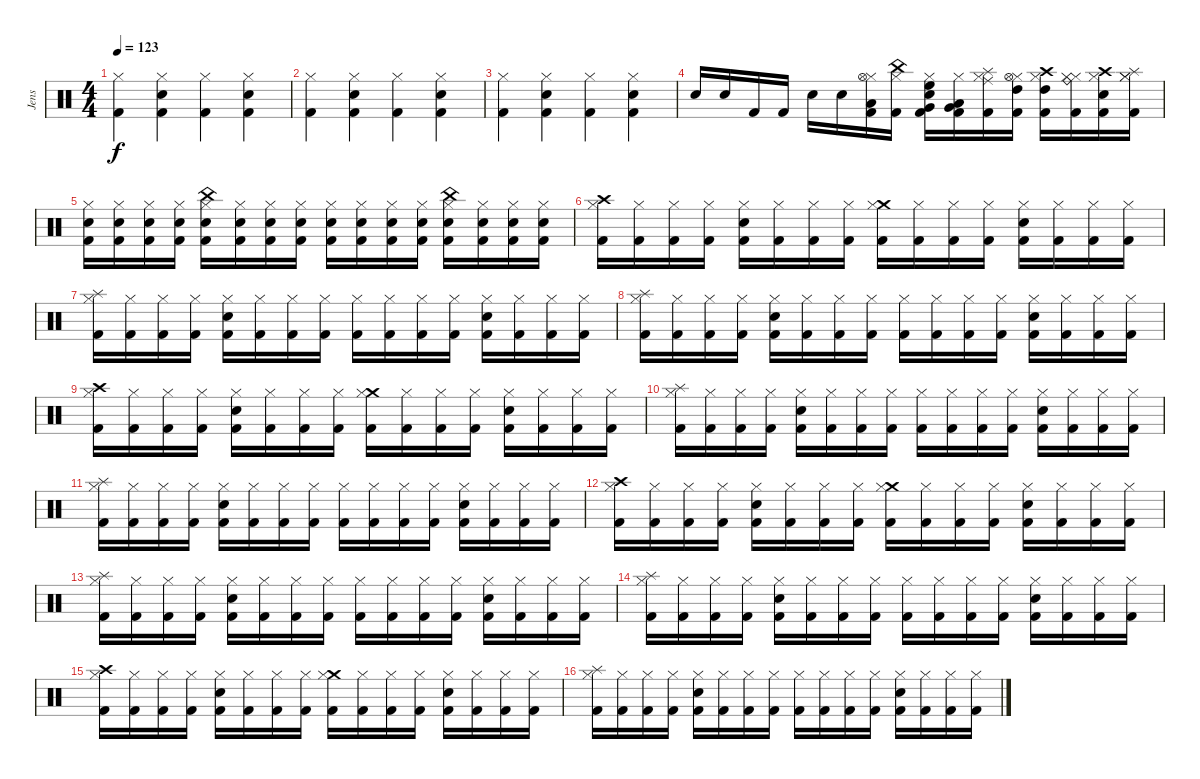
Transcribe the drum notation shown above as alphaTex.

\track ("Jens" "Jens") {instrument percussion}
\staff {score}
\articulation defaults
\ts (4 4)
\tempo 123
\clef neutral
\ks c
("Hi-Hat (closed)" "Kick (hit) 2").4{dy f} ("Hi-Hat (closed)" "Electric Snare (hit)" "Kick (hit) 2").4 ("Hi-Hat (closed)" "Kick (hit) 2").4 ("Hi-Hat (closed)" "Electric Snare (hit)" "Kick (hit) 2").4 |
("Hi-Hat (closed)" "Kick (hit) 2").4 ("Hi-Hat (closed)" "Electric Snare (hit)" "Kick (hit) 2").4 ("Hi-Hat (closed)" "Kick (hit) 2").4 ("Hi-Hat (closed)" "Electric Snare (hit)" "Kick (hit) 2").4 |
("Hi-Hat (closed)" "Kick (hit) 2").4 ("Hi-Hat (closed)" "Electric Snare (hit)" "Kick (hit) 2").4 ("Hi-Hat (closed)" "Kick (hit) 2").4 ("Hi-Hat (closed)" "Electric Snare (hit)" "Kick (hit) 2").4 |
"Snare (hit) 2".16 "Snare (hit) 2".16 "Kick (hit) 2".16 "Kick (hit) 2".16 "Snare (hit) 2".16 "Snare (hit) 2".16 ("Hi-Hat (closed)" "Low Tom (hit)" "Hi-Hat (open)" "Kick (hit) 2").16 ("Hi-Hat (closed)" "China (hit)" "Kick (hit) 2").16 ("Hi-Hat (closed)" "High Floor Tom (hit)" "Very Low Tom (hit)" "Snare (hit) 2" "Kick (hit) 2").16 ("Hi-Hat (closed)" "Low Floor Tom (hit)" "Very Low Tom (hit)" "Kick (hit) 2").16 ("Hi-Hat (closed)" "Splash (hit)" "Ride (middle)" "Kick (hit) 2").16 ("Hi-Hat (closed)" "Hi-Hat (open)" "High Tom (hit)" "Kick (hit) 2").16 ("Hi-Hat (closed)" "High Tom (hit)" "Crash high (hit)" "Kick (hit) 2").16 ("Hi-Hat (closed)" "Hi-Hat (closed)" "Ride (bell)" "Kick (hit) 2").16 ("Hi-Hat (closed)" "Snare (hit) 2" "Crash high (hit)" "Kick (hit) 2").16 ("Hi-Hat (closed)" "Splash (hit)" "Hi-Hat (closed)" "Kick (hit) 2").16 |
("Hi-Hat (closed)" "Snare (hit) 2" "Kick (hit) 2").16 ("Hi-Hat (closed)" "Snare (hit) 2" "Kick (hit) 2").16 ("Hi-Hat (closed)" "Snare (hit) 2" "Kick (hit) 2").16 ("Hi-Hat (closed)" "Snare (hit) 2" "Kick (hit) 2").16 ("Hi-Hat (closed)" "China (hit)" "Snare (hit) 2" "Kick (hit) 2").16 ("Hi-Hat (closed)" "Snare (hit) 2" "Kick (hit) 2").16 ("Hi-Hat (closed)" "Snare (hit) 2" "Kick (hit) 2").16 ("Hi-Hat (closed)" "Snare (hit) 2" "Kick (hit) 2").16 ("Hi-Hat (closed)" "Snare (hit) 2" "Kick (hit) 2").16 ("Hi-Hat (closed)" "Snare (hit) 2" "Kick (hit) 2").16 ("Hi-Hat (closed)" "Snare (hit) 2" "Kick (hit) 2").16 ("Hi-Hat (closed)" "Snare (hit) 2" "Kick (hit) 2").16 ("Hi-Hat (closed)" "China (hit)" "Snare (hit) 2" "Kick (hit) 2").16 ("Hi-Hat (closed)" "Snare (hit) 2" "Kick (hit) 2").16 ("Hi-Hat (closed)" "Snare (hit) 2" "Kick (hit) 2").16 ("Hi-Hat (closed)" "Snare (hit) 2" "Kick (hit) 2").16 |
("Crash high (hit)" "Hi-Hat (closed)" "Kick (hit) 2").16 ("Hi-Hat (closed)" "Kick (hit) 2").16 ("Hi-Hat (closed)" "Kick (hit) 2").16 ("Hi-Hat (closed)" "Kick (hit) 2").16 ("Hi-Hat (closed)" "Snare (hit) 2" "Kick (hit) 2").16 ("Hi-Hat (closed)" "Kick (hit) 2").16 ("Hi-Hat (closed)" "Kick (hit) 2").16 ("Hi-Hat (closed)" "Kick (hit) 2").16 ("Crash medium (hit)" "Hi-Hat (closed)" "Kick (hit) 2").16 ("Hi-Hat (closed)" "Kick (hit) 2").16 ("Hi-Hat (closed)" "Kick (hit) 2").16 ("Hi-Hat (closed)" "Kick (hit) 2").16 ("Hi-Hat (closed)" "Snare (hit) 2" "Kick (hit) 2").16 ("Hi-Hat (closed)" "Kick (hit) 2").16 ("Hi-Hat (closed)" "Kick (hit) 2").16 ("Hi-Hat (closed)" "Kick (hit) 2").16 |
("Splash (hit)" "Hi-Hat (closed)" "Kick (hit) 2").16 ("Hi-Hat (closed)" "Kick (hit) 2").16 ("Hi-Hat (closed)" "Kick (hit) 2").16 ("Hi-Hat (closed)" "Kick (hit) 2").16 ("Hi-Hat (closed)" "Snare (hit) 2" "Kick (hit) 2").16 ("Hi-Hat (closed)" "Kick (hit) 2").16 ("Hi-Hat (closed)" "Kick (hit) 2").16 ("Hi-Hat (closed)" "Kick (hit) 2").16 ("Hi-Hat (closed)" "Kick (hit) 2").16 ("Hi-Hat (closed)" "Kick (hit) 2").16 ("Hi-Hat (closed)" "Kick (hit) 2").16 ("Hi-Hat (closed)" "Kick (hit) 2").16 ("Hi-Hat (closed)" "Snare (hit) 2" "Kick (hit) 2").16 ("Hi-Hat (closed)" "Kick (hit) 2").16 ("Hi-Hat (closed)" "Kick (hit) 2").16 ("Hi-Hat (closed)" "Kick (hit) 2").16 |
("Splash (hit)" "Hi-Hat (closed)" "Kick (hit) 2").16 ("Hi-Hat (closed)" "Kick (hit) 2").16 ("Hi-Hat (closed)" "Kick (hit) 2").16 ("Hi-Hat (closed)" "Kick (hit) 2").16 ("Hi-Hat (closed)" "Snare (hit) 2" "Kick (hit) 2").16 ("Hi-Hat (closed)" "Kick (hit) 2").16 ("Hi-Hat (closed)" "Kick (hit) 2").16 ("Hi-Hat (closed)" "Kick (hit) 2").16 ("Hi-Hat (closed)" "Kick (hit) 2").16 ("Hi-Hat (closed)" "Kick (hit) 2").16 ("Hi-Hat (closed)" "Kick (hit) 2").16 ("Hi-Hat (closed)" "Kick (hit) 2").16 ("Hi-Hat (closed)" "Snare (hit) 2" "Kick (hit) 2").16 ("Hi-Hat (closed)" "Kick (hit) 2").16 ("Hi-Hat (closed)" "Kick (hit) 2").16 ("Hi-Hat (closed)" "Kick (hit) 2").16 |
("Crash high (hit)" "Hi-Hat (closed)" "Kick (hit) 2").16 ("Hi-Hat (closed)" "Kick (hit) 2").16 ("Hi-Hat (closed)" "Kick (hit) 2").16 ("Hi-Hat (closed)" "Kick (hit) 2").16 ("Hi-Hat (closed)" "Snare (hit) 2" "Kick (hit) 2").16 ("Hi-Hat (closed)" "Kick (hit) 2").16 ("Hi-Hat (closed)" "Kick (hit) 2").16 ("Hi-Hat (closed)" "Kick (hit) 2").16 ("Crash medium (hit)" "Hi-Hat (closed)" "Kick (hit) 2").16 ("Hi-Hat (closed)" "Kick (hit) 2").16 ("Hi-Hat (closed)" "Kick (hit) 2").16 ("Hi-Hat (closed)" "Kick (hit) 2").16 ("Hi-Hat (closed)" "Snare (hit) 2" "Kick (hit) 2").16 ("Hi-Hat (closed)" "Kick (hit) 2").16 ("Hi-Hat (closed)" "Kick (hit) 2").16 ("Hi-Hat (closed)" "Kick (hit) 2").16 |
("Splash (hit)" "Hi-Hat (closed)" "Kick (hit) 2").16 ("Hi-Hat (closed)" "Kick (hit) 2").16 ("Hi-Hat (closed)" "Kick (hit) 2").16 ("Hi-Hat (closed)" "Kick (hit) 2").16 ("Hi-Hat (closed)" "Snare (hit) 2" "Kick (hit) 2").16 ("Hi-Hat (closed)" "Kick (hit) 2").16 ("Hi-Hat (closed)" "Kick (hit) 2").16 ("Hi-Hat (closed)" "Kick (hit) 2").16 ("Hi-Hat (closed)" "Kick (hit) 2").16 ("Hi-Hat (closed)" "Kick (hit) 2").16 ("Hi-Hat (closed)" "Kick (hit) 2").16 ("Hi-Hat (closed)" "Kick (hit) 2").16 ("Hi-Hat (closed)" "Snare (hit) 2" "Kick (hit) 2").16 ("Hi-Hat (closed)" "Kick (hit) 2").16 ("Hi-Hat (closed)" "Kick (hit) 2").16 ("Hi-Hat (closed)" "Kick (hit) 2").16 |
("Splash (hit)" "Hi-Hat (closed)" "Kick (hit) 2").16 ("Hi-Hat (closed)" "Kick (hit) 2").16 ("Hi-Hat (closed)" "Kick (hit) 2").16 ("Hi-Hat (closed)" "Kick (hit) 2").16 ("Hi-Hat (closed)" "Snare (hit) 2" "Kick (hit) 2").16 ("Hi-Hat (closed)" "Kick (hit) 2").16 ("Hi-Hat (closed)" "Kick (hit) 2").16 ("Hi-Hat (closed)" "Kick (hit) 2").16 ("Hi-Hat (closed)" "Kick (hit) 2").16 ("Hi-Hat (closed)" "Kick (hit) 2").16 ("Hi-Hat (closed)" "Kick (hit) 2").16 ("Hi-Hat (closed)" "Kick (hit) 2").16 ("Hi-Hat (closed)" "Snare (hit) 2" "Kick (hit) 2").16 ("Hi-Hat (closed)" "Kick (hit) 2").16 ("Hi-Hat (closed)" "Kick (hit) 2").16 ("Hi-Hat (closed)" "Kick (hit) 2").16 |
("Crash high (hit)" "Hi-Hat (closed)" "Kick (hit) 2").16 ("Hi-Hat (closed)" "Kick (hit) 2").16 ("Hi-Hat (closed)" "Kick (hit) 2").16 ("Hi-Hat (closed)" "Kick (hit) 2").16 ("Hi-Hat (closed)" "Snare (hit) 2" "Kick (hit) 2").16 ("Hi-Hat (closed)" "Kick (hit) 2").16 ("Hi-Hat (closed)" "Kick (hit) 2").16 ("Hi-Hat (closed)" "Kick (hit) 2").16 ("Crash medium (hit)" "Hi-Hat (closed)" "Kick (hit) 2").16 ("Hi-Hat (closed)" "Kick (hit) 2").16 ("Hi-Hat (closed)" "Kick (hit) 2").16 ("Hi-Hat (closed)" "Kick (hit) 2").16 ("Hi-Hat (closed)" "Snare (hit) 2" "Kick (hit) 2").16 ("Hi-Hat (closed)" "Kick (hit) 2").16 ("Hi-Hat (closed)" "Kick (hit) 2").16 ("Hi-Hat (closed)" "Kick (hit) 2").16 |
("Splash (hit)" "Hi-Hat (closed)" "Kick (hit) 2").16 ("Hi-Hat (closed)" "Kick (hit) 2").16 ("Hi-Hat (closed)" "Kick (hit) 2").16 ("Hi-Hat (closed)" "Kick (hit) 2").16 ("Hi-Hat (closed)" "Snare (hit) 2" "Kick (hit) 2").16 ("Hi-Hat (closed)" "Kick (hit) 2").16 ("Hi-Hat (closed)" "Kick (hit) 2").16 ("Hi-Hat (closed)" "Kick (hit) 2").16 ("Hi-Hat (closed)" "Kick (hit) 2").16 ("Hi-Hat (closed)" "Kick (hit) 2").16 ("Hi-Hat (closed)" "Kick (hit) 2").16 ("Hi-Hat (closed)" "Kick (hit) 2").16 ("Hi-Hat (closed)" "Snare (hit) 2" "Kick (hit) 2").16 ("Hi-Hat (closed)" "Kick (hit) 2").16 ("Hi-Hat (closed)" "Kick (hit) 2").16 ("Hi-Hat (closed)" "Kick (hit) 2").16 |
("Splash (hit)" "Hi-Hat (closed)" "Kick (hit) 2").16 ("Hi-Hat (closed)" "Kick (hit) 2").16 ("Hi-Hat (closed)" "Kick (hit) 2").16 ("Hi-Hat (closed)" "Kick (hit) 2").16 ("Hi-Hat (closed)" "Snare (hit) 2" "Kick (hit) 2").16 ("Hi-Hat (closed)" "Kick (hit) 2").16 ("Hi-Hat (closed)" "Kick (hit) 2").16 ("Hi-Hat (closed)" "Kick (hit) 2").16 ("Hi-Hat (closed)" "Kick (hit) 2").16 ("Hi-Hat (closed)" "Kick (hit) 2").16 ("Hi-Hat (closed)" "Kick (hit) 2").16 ("Hi-Hat (closed)" "Kick (hit) 2").16 ("Hi-Hat (closed)" "Snare (hit) 2" "Kick (hit) 2").16 ("Hi-Hat (closed)" "Kick (hit) 2").16 ("Hi-Hat (closed)" "Kick (hit) 2").16 ("Hi-Hat (closed)" "Kick (hit) 2").16 |
("Crash high (hit)" "Hi-Hat (closed)" "Kick (hit) 2").16 ("Hi-Hat (closed)" "Kick (hit) 2").16 ("Hi-Hat (closed)" "Kick (hit) 2").16 ("Hi-Hat (closed)" "Kick (hit) 2").16 ("Hi-Hat (closed)" "Snare (hit) 2" "Kick (hit) 2").16 ("Hi-Hat (closed)" "Kick (hit) 2").16 ("Hi-Hat (closed)" "Kick (hit) 2").16 ("Hi-Hat (closed)" "Kick (hit) 2").16 ("Crash medium (hit)" "Hi-Hat (closed)" "Kick (hit) 2").16 ("Hi-Hat (closed)" "Kick (hit) 2").16 ("Hi-Hat (closed)" "Kick (hit) 2").16 ("Hi-Hat (closed)" "Kick (hit) 2").16 ("Hi-Hat (closed)" "Snare (hit) 2" "Kick (hit) 2").16 ("Hi-Hat (closed)" "Kick (hit) 2").16 ("Hi-Hat (closed)" "Kick (hit) 2").16 ("Hi-Hat (closed)" "Kick (hit) 2").16 |
("Splash (hit)" "Hi-Hat (closed)" "Kick (hit) 2").16 ("Hi-Hat (closed)" "Kick (hit) 2").16 ("Hi-Hat (closed)" "Kick (hit) 2").16 ("Hi-Hat (closed)" "Kick (hit) 2").16 ("Hi-Hat (closed)" "Snare (hit) 2" "Kick (hit) 2").16 ("Hi-Hat (closed)" "Kick (hit) 2").16 ("Hi-Hat (closed)" "Kick (hit) 2").16 ("Hi-Hat (closed)" "Kick (hit) 2").16 ("Hi-Hat (closed)" "Kick (hit) 2").16 ("Hi-Hat (closed)" "Kick (hit) 2").16 ("Hi-Hat (closed)" "Kick (hit) 2").16 ("Hi-Hat (closed)" "Kick (hit) 2").16 ("Hi-Hat (closed)" "Snare (hit) 2" "Kick (hit) 2").16 ("Hi-Hat (closed)" "Kick (hit) 2").16 ("Hi-Hat (closed)" "Kick (hit) 2").16 ("Hi-Hat (closed)" "Kick (hit) 2").16
